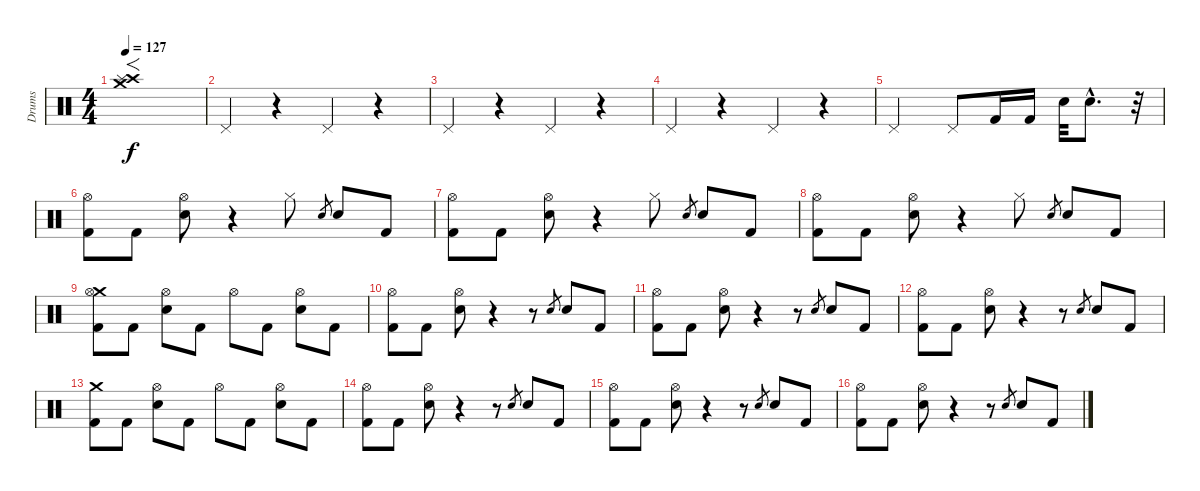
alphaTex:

\track ("Drums" "Drums") {instrument percussion}
\staff {score}
\articulation defaults
\ts (4 4)
\tempo 127
\clef neutral
\ks c
("Crash high (hit)" "Splash (hit)" "Crash medium (hit)").1{f dy f} |
"Pedal Hi-Hat (hit)".4 r.4 "Pedal Hi-Hat (hit)".4 r.4 |
"Pedal Hi-Hat (hit)".4 r.4 "Pedal Hi-Hat (hit)".4 r.4 |
"Pedal Hi-Hat (hit)".4 r.4 "Pedal Hi-Hat (hit)".4 r.4 |
"Pedal Hi-Hat (hit)".2 "Pedal Hi-Hat (hit)".8 "Kick (hit) 2".16 "Kick (hit) 2".16 "Snare (hit) 2".32 "Snare (hit) 2"{hac}.8{d} r.32 |
("Hi-Hat (open)" "Kick (hit) 2").8 "Kick (hit) 2".8 ("Hi-Hat (open)" "Snare (hit) 2").8 r.4 "Hi-Hat (closed)".8 "Snare (hit) 2".8{gr} "Snare (hit) 2".8 "Kick (hit) 2".8 |
("Hi-Hat (open)" "Kick (hit) 2").8 "Kick (hit) 2".8 ("Hi-Hat (open)" "Snare (hit) 2").8 r.4 "Hi-Hat (closed)".8 "Snare (hit) 2".8{gr} "Snare (hit) 2".8 "Kick (hit) 2".8 |
("Hi-Hat (open)" "Kick (hit) 2").8 "Kick (hit) 2".8 ("Hi-Hat (open)" "Snare (hit) 2").8 r.4 "Hi-Hat (closed)".8 "Snare (hit) 2".8{gr} "Snare (hit) 2".8 "Kick (hit) 2".8 |
("Crash medium (hit)" "Hi-Hat (open)" "Kick (hit) 2").8 "Kick (hit) 2".8 ("Hi-Hat (open)" "Snare (hit) 2").8 "Kick (hit) 2".8 "Hi-Hat (open)".8 "Kick (hit) 2".8 ("Hi-Hat (open)" "Snare (hit) 2").8 "Kick (hit) 2".8 |
("Hi-Hat (open)" "Kick (hit) 2").8 "Kick (hit) 2".8 ("Hi-Hat (open)" "Snare (hit) 2").8 r.4 r.8 "Snare (hit) 2".8{gr} "Snare (hit) 2".8 "Kick (hit) 2".8 |
("Hi-Hat (open)" "Kick (hit) 2").8 "Kick (hit) 2".8 ("Hi-Hat (open)" "Snare (hit) 2").8 r.4 r.8 "Snare (hit) 2".8{gr} "Snare (hit) 2".8 "Kick (hit) 2".8 |
("Hi-Hat (open)" "Kick (hit) 2").8 "Kick (hit) 2".8 ("Hi-Hat (open)" "Snare (hit) 2").8 r.4 r.8 "Snare (hit) 2".8{gr} "Snare (hit) 2".8 "Kick (hit) 2".8 |
("Crash medium (hit)" "Kick (hit) 2").8 "Kick (hit) 2".8 ("Hi-Hat (open)" "Snare (hit) 2").8 "Kick (hit) 2".8 "Hi-Hat (open)".8 "Kick (hit) 2".8 ("Hi-Hat (open)" "Snare (hit) 2").8 "Kick (hit) 2".8 |
("Hi-Hat (open)" "Kick (hit) 2").8 "Kick (hit) 2".8 ("Hi-Hat (open)" "Snare (hit) 2").8 r.4 r.8 "Snare (hit) 2".8{gr} "Snare (hit) 2".8 "Kick (hit) 2".8 |
("Hi-Hat (open)" "Kick (hit) 2").8 "Kick (hit) 2".8 ("Hi-Hat (open)" "Snare (hit) 2").8 r.4 r.8 "Snare (hit) 2".8{gr} "Snare (hit) 2".8 "Kick (hit) 2".8 |
("Hi-Hat (open)" "Kick (hit) 2").8 "Kick (hit) 2".8 ("Hi-Hat (open)" "Snare (hit) 2").8 r.4 r.8 "Snare (hit) 2".8{gr} "Snare (hit) 2".8 "Kick (hit) 2".8
